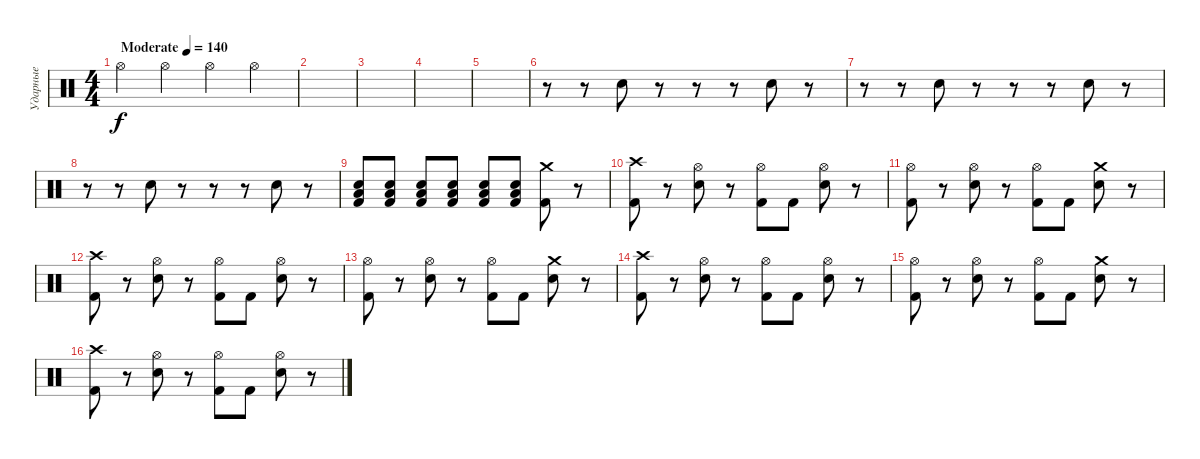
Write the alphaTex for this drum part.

\track ("Ударные" "Ударные") {instrument percussion}
\staff {score}
\articulation defaults
\ts (4 4)
\tempo (140 "Moderate")
\clef neutral
\ks c "Hi-Hat (open)".4{dy f} "Hi-Hat (open)".4 "Hi-Hat (open)".4 "Hi-Hat (open)".4
|
|
|
|
|
r.8 r.8 "Electric Snare (hit)".8 r.8 r.8 r.8 "Electric Snare (hit)".8 r.8 |
r.8 r.8 "Electric Snare (hit)".8 r.8 r.8 r.8 "Electric Snare (hit)".8 r.8 |
r.8 r.8 "Electric Snare (hit)".8 r.8 r.8 r.8 "Electric Snare (hit)".8 r.8 |
("Low Tom (hit)" "Electric Snare (hit)" "Kick (hit) 2").8 ("Low Tom (hit)" "Electric Snare (hit)" "Kick (hit) 2").8 ("Low Tom (hit)" "Electric Snare (hit)" "Kick (hit) 2").8 ("Low Tom (hit)" "Electric Snare (hit)" "Kick (hit) 2").8 ("Low Tom (hit)" "Electric Snare (hit)" "Kick (hit) 2").8 ("Low Tom (hit)" "Electric Snare (hit)" "Kick (hit) 2").8 ("Crash medium (hit)" "Kick (hit) 2").8 r.8 |
("Crash high (hit)" "Kick (hit) 2").8 r.8 ("Hi-Hat (open)" "Electric Snare (hit)").8 r.8 ("Hi-Hat (open)" "Kick (hit) 2").8 "Kick (hit) 2".8 ("Hi-Hat (open)" "Electric Snare (hit)").8 r.8 |
("Hi-Hat (open)" "Kick (hit) 2").8 r.8 ("Hi-Hat (open)" "Electric Snare (hit)").8 r.8 ("Hi-Hat (open)" "Kick (hit) 2").8 "Kick (hit) 2".8 ("Crash medium (hit)" "Electric Snare (hit)").8 r.8 |
("Crash high (hit)" "Kick (hit) 2").8 r.8 ("Hi-Hat (open)" "Electric Snare (hit)").8 r.8 ("Hi-Hat (open)" "Kick (hit) 2").8 "Kick (hit) 2".8 ("Hi-Hat (open)" "Electric Snare (hit)").8 r.8 |
("Hi-Hat (open)" "Kick (hit) 2").8 r.8 ("Hi-Hat (open)" "Electric Snare (hit)").8 r.8 ("Hi-Hat (open)" "Kick (hit) 2").8 "Kick (hit) 2".8 ("Crash medium (hit)" "Electric Snare (hit)").8 r.8 |
("Crash high (hit)" "Kick (hit) 2").8 r.8 ("Hi-Hat (open)" "Electric Snare (hit)").8 r.8 ("Hi-Hat (open)" "Kick (hit) 2").8 "Kick (hit) 2".8 ("Hi-Hat (open)" "Electric Snare (hit)").8 r.8 |
("Hi-Hat (open)" "Kick (hit) 2").8 r.8 ("Hi-Hat (open)" "Electric Snare (hit)").8 r.8 ("Hi-Hat (open)" "Kick (hit) 2").8 "Kick (hit) 2".8 ("Crash medium (hit)" "Electric Snare (hit)").8 r.8 |
("Crash high (hit)" "Kick (hit) 2").8 r.8 ("Hi-Hat (open)" "Electric Snare (hit)").8 r.8 ("Hi-Hat (open)" "Kick (hit) 2").8 "Kick (hit) 2".8 ("Hi-Hat (open)" "Electric Snare (hit)").8 r.8
